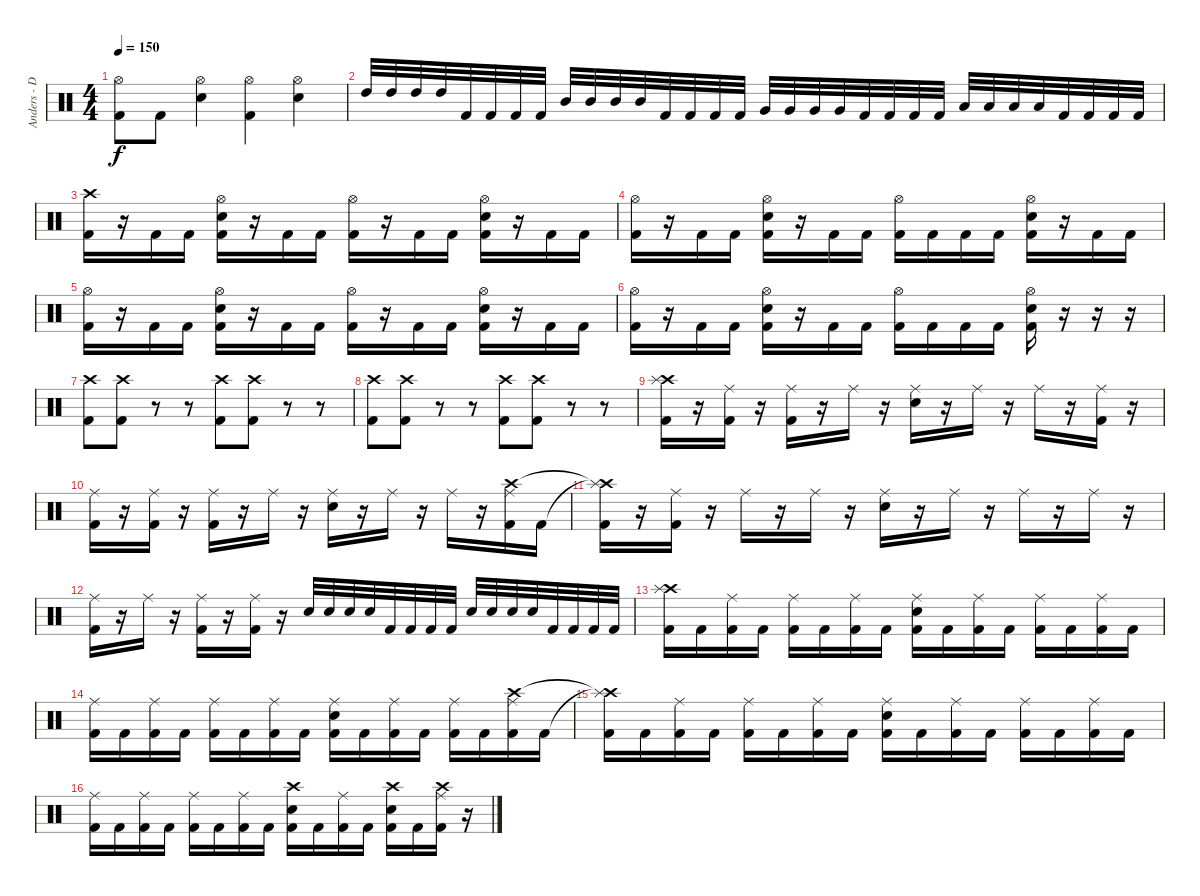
\track ("Anders - Drums" "Anders - D") {instrument percussion}
\staff {score}
\articulation defaults
\ts (4 4)
\tempo 150
\clef neutral
\ks c
("Hi-Hat (open)" "Kick (hit) 2").8{dy f} "Kick (hit) 2".8 ("Hi-Hat (open)" "Snare (hit) 2").4 ("Hi-Hat (open)" "Kick (hit) 2").4 ("Hi-Hat (open)" "Snare (hit) 2").4 |
"High Tom (hit)".32 "High Tom (hit)".32 "High Tom (hit)".32 "High Tom (hit)".32 "Kick (hit) 2".32 "Kick (hit) 2".32 "Kick (hit) 2".32 "Kick (hit) 2".32 "Mid Tom (hit)".32 "Mid Tom (hit)".32 "Mid Tom (hit)".32 "Mid Tom (hit)".32 "Kick (hit) 2".32 "Kick (hit) 2".32 "Kick (hit) 2".32 "Kick (hit) 2".32 "Very Low Tom (hit)".32 "Very Low Tom (hit)".32 "Very Low Tom (hit)".32 "Very Low Tom (hit)".32 "Kick (hit) 2".32 "Kick (hit) 2".32 "Kick (hit) 2".32 "Kick (hit) 2".32 "Low Tom (hit)".32 "Low Tom (hit)".32 "Low Tom (hit)".32 "Low Tom (hit)".32 "Kick (hit) 2".32 "Kick (hit) 2".32 "Kick (hit) 2".32 "Kick (hit) 2".32 |
("Crash high (hit)" "Kick (hit) 2").16 r.16 "Kick (hit) 2".16 "Kick (hit) 2".16 ("Hi-Hat (open)" "Snare (hit) 2" "Kick (hit) 2").16 r.16 "Kick (hit) 2".16 "Kick (hit) 2".16 ("Hi-Hat (open)" "Kick (hit) 2").16 r.16 "Kick (hit) 2".16 "Kick (hit) 2".16 ("Hi-Hat (open)" "Snare (hit) 2" "Kick (hit) 2").16 r.16 "Kick (hit) 2".16 "Kick (hit) 2".16 |
("Hi-Hat (open)" "Kick (hit) 2").16 r.16 "Kick (hit) 2".16 "Kick (hit) 2".16 ("Hi-Hat (open)" "Snare (hit) 2" "Kick (hit) 2").16 r.16 "Kick (hit) 2".16 "Kick (hit) 2".16 ("Hi-Hat (open)" "Kick (hit) 2").16 "Kick (hit) 2".16 "Kick (hit) 2".16 "Kick (hit) 2".16 ("Hi-Hat (open)" "Snare (hit) 2" "Kick (hit) 2").16 r.16 "Kick (hit) 2".16 "Kick (hit) 2".16 |
("Hi-Hat (open)" "Kick (hit) 2").16 r.16 "Kick (hit) 2".16 "Kick (hit) 2".16 ("Hi-Hat (open)" "Snare (hit) 2" "Kick (hit) 2").16 r.16 "Kick (hit) 2".16 "Kick (hit) 2".16 ("Hi-Hat (open)" "Kick (hit) 2").16 r.16 "Kick (hit) 2".16 "Kick (hit) 2".16 ("Hi-Hat (open)" "Snare (hit) 2" "Kick (hit) 2").16 r.16 "Kick (hit) 2".16 "Kick (hit) 2".16 |
("Hi-Hat (open)" "Kick (hit) 2").16 r.16 "Kick (hit) 2".16 "Kick (hit) 2".16 ("Hi-Hat (open)" "Snare (hit) 2" "Kick (hit) 2").16 r.16 "Kick (hit) 2".16 "Kick (hit) 2".16 ("Hi-Hat (open)" "Kick (hit) 2").16 "Kick (hit) 2".16 "Kick (hit) 2".16 "Kick (hit) 2".16 ("Hi-Hat (open)" "Snare (hit) 2" "Kick (hit) 2").16 r.16 r.16 r.16 |
("Crash high (hit)" "Kick (hit) 2").8 ("Crash high (hit)" "Kick (hit) 2").8 r.8 r.8 ("Crash high (hit)" "Kick (hit) 2").8 ("Crash high (hit)" "Kick (hit) 2").8 r.8 r.8 |
("Crash high (hit)" "Kick (hit) 2").8 ("Crash high (hit)" "Kick (hit) 2").8 r.8 r.8 ("Crash high (hit)" "Kick (hit) 2").8 ("Crash high (hit)" "Kick (hit) 2").8 r.8 r.8 |
("Crash high (hit)" "Splash (hit)" "Kick (hit) 2").16 r.16 ("Ride (middle)" "Kick (hit) 2").16 r.16 ("Ride (middle)" "Kick (hit) 2").16 r.16 "Ride (middle)".16 r.16 ("Ride (middle)" "Snare (hit) 2").16 r.16 "Ride (middle)".16 r.16 "Ride (middle)".16 r.16 ("Ride (middle)" "Kick (hit) 2").16 r.16 |
("Ride (middle)" "Kick (hit) 2").16 r.16 ("Ride (middle)" "Kick (hit) 2").16 r.16 ("Ride (middle)" "Kick (hit) 2").16 r.16 "Ride (middle)".16 r.16 ("Ride (middle)" "Snare (hit) 2").16 r.16 "Ride (middle)".16 r.16 "Ride (middle)".16 r.16 ("Ride (middle)" "Crash high (hit)" "Kick (hit) 2").16 "Kick (hit) 2".16 |
("Crash high (hit)"{t} "Splash (hit)"{t} "Kick (hit) 2").16 r.16 ("Ride (middle)" "Kick (hit) 2").16 r.16 "Ride (middle)".16 r.16 "Ride (middle)".16 r.16 ("Ride (middle)" "Snare (hit) 2").16 r.16 "Ride (middle)".16 r.16 "Ride (middle)".16 r.16 "Ride (middle)".16 r.16 |
("Ride (middle)" "Kick (hit) 2").16 r.16 "Ride (middle)".16 r.16 ("Ride (middle)" "Kick (hit) 2").16 r.16 ("Ride (middle)" "Kick (hit) 2").16 r.16 "Snare (hit) 2".32 "Snare (hit) 2".32 "Snare (hit) 2".32 "Snare (hit) 2".32 "Kick (hit) 2".32 "Kick (hit) 2".32 "Kick (hit) 2".32 "Kick (hit) 2".32 "Snare (hit) 2".32 "Snare (hit) 2".32 "Snare (hit) 2".32 "Snare (hit) 2".32 "Kick (hit) 2".32 "Kick (hit) 2".32 "Kick (hit) 2".32 "Kick (hit) 2".32 |
("Crash high (hit)" "Splash (hit)" "Kick (hit) 2").16 "Kick (hit) 2".16 ("Ride (middle)" "Kick (hit) 2").16 "Kick (hit) 2".16 ("Ride (middle)" "Kick (hit) 2").16 "Kick (hit) 2".16 ("Ride (middle)" "Kick (hit) 2").16 "Kick (hit) 2".16 ("Ride (middle)" "Snare (hit) 2" "Kick (hit) 2").16 "Kick (hit) 2".16 ("Ride (middle)" "Kick (hit) 2").16 "Kick (hit) 2".16 ("Ride (middle)" "Kick (hit) 2").16 "Kick (hit) 2".16 ("Ride (middle)" "Kick (hit) 2").16 "Kick (hit) 2".16 |
("Ride (middle)" "Kick (hit) 2").16 "Kick (hit) 2".16 ("Ride (middle)" "Kick (hit) 2").16 "Kick (hit) 2".16 ("Ride (middle)" "Kick (hit) 2").16 "Kick (hit) 2".16 ("Ride (middle)" "Kick (hit) 2").16 "Kick (hit) 2".16 ("Ride (middle)" "Snare (hit) 2" "Kick (hit) 2").16 "Kick (hit) 2".16 ("Ride (middle)" "Kick (hit) 2").16 "Kick (hit) 2".16 ("Ride (middle)" "Kick (hit) 2").16 "Kick (hit) 2".16 ("Ride (middle)" "Crash high (hit)" "Kick (hit) 2").16 "Kick (hit) 2".16 |
("Crash high (hit)"{t} "Splash (hit)"{t} "Kick (hit) 2").16 "Kick (hit) 2".16 ("Ride (middle)" "Kick (hit) 2").16 "Kick (hit) 2".16 ("Ride (middle)" "Kick (hit) 2").16 "Kick (hit) 2".16 ("Ride (middle)" "Kick (hit) 2").16 "Kick (hit) 2".16 ("Ride (middle)" "Snare (hit) 2" "Kick (hit) 2").16 "Kick (hit) 2".16 ("Ride (middle)" "Kick (hit) 2").16 "Kick (hit) 2".16 ("Ride (middle)" "Kick (hit) 2").16 "Kick (hit) 2".16 ("Ride (middle)" "Kick (hit) 2").16 "Kick (hit) 2".16 |
("Ride (middle)" "Kick (hit) 2").16 "Kick (hit) 2".16 ("Ride (middle)" "Kick (hit) 2").16 "Kick (hit) 2".16 ("Ride (middle)" "Kick (hit) 2").16 "Kick (hit) 2".16 ("Ride (middle)" "Kick (hit) 2").16 "Kick (hit) 2".16 ("Crash high (hit)" "Snare (hit) 2" "Kick (hit) 2").16 "Kick (hit) 2".16 ("Ride (middle)" "Kick (hit) 2").16 "Kick (hit) 2".16 ("Crash high (hit)" "Snare (hit) 2" "Kick (hit) 2").16 "Kick (hit) 2".16 ("Ride (middle)" "Crash high (hit)" "Kick (hit) 2").16 r.16
